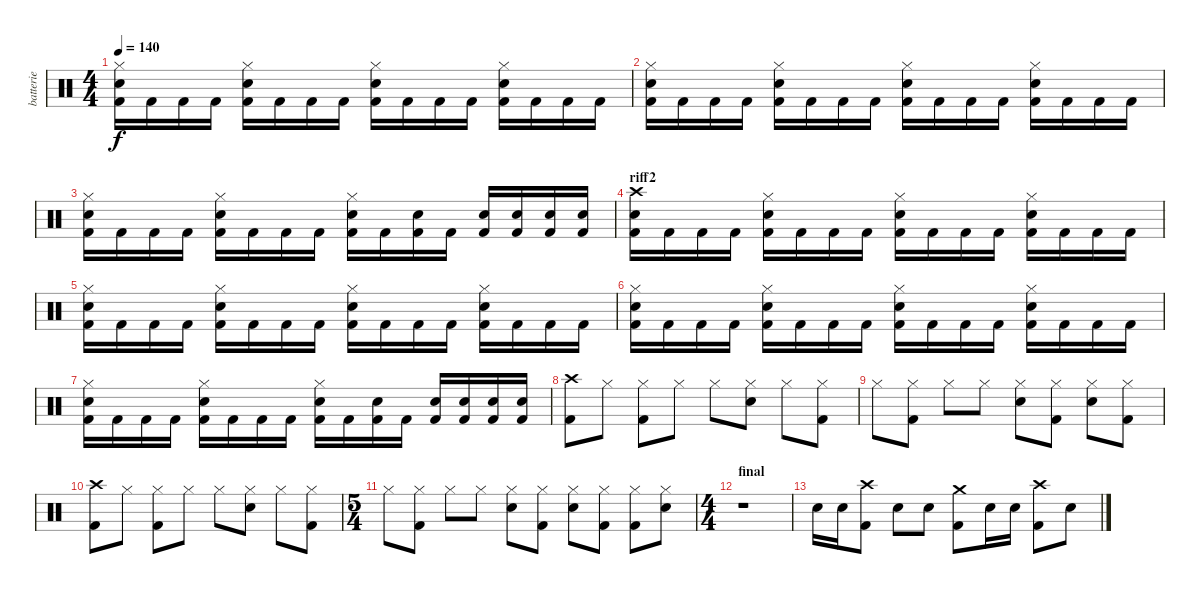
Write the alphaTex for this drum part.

\track ("batterie" "batterie") {instrument percussion}
\staff {score}
\articulation defaults
\ts (4 4)
\tempo 140
\clef neutral
\ks c
("Snare (hit) 2" "Kick (hit) 2" "Hi-Hat (closed)").16{dy f} "Kick (hit) 2".16 "Kick (hit) 2".16 "Kick (hit) 2".16 ("Snare (hit) 2" "Kick (hit) 2" "Hi-Hat (closed)").16 "Kick (hit) 2".16 "Kick (hit) 2".16 "Kick (hit) 2".16 ("Snare (hit) 2" "Kick (hit) 2" "Hi-Hat (closed)").16 "Kick (hit) 2".16 "Kick (hit) 2".16 "Kick (hit) 2".16 ("Snare (hit) 2" "Kick (hit) 2" "Hi-Hat (closed)").16 "Kick (hit) 2".16 "Kick (hit) 2".16 "Kick (hit) 2".16 |
("Snare (hit) 2" "Kick (hit) 2" "Hi-Hat (closed)").16 "Kick (hit) 2".16 "Kick (hit) 2".16 "Kick (hit) 2".16 ("Snare (hit) 2" "Kick (hit) 2" "Hi-Hat (closed)").16 "Kick (hit) 2".16 "Kick (hit) 2".16 "Kick (hit) 2".16 ("Snare (hit) 2" "Kick (hit) 2" "Hi-Hat (closed)").16 "Kick (hit) 2".16 "Kick (hit) 2".16 "Kick (hit) 2".16 ("Snare (hit) 2" "Kick (hit) 2" "Hi-Hat (closed)").16 "Kick (hit) 2".16 "Kick (hit) 2".16 "Kick (hit) 2".16 |
("Snare (hit) 2" "Kick (hit) 2" "Hi-Hat (closed)").16 "Kick (hit) 2".16 "Kick (hit) 2".16 "Kick (hit) 2".16 ("Snare (hit) 2" "Kick (hit) 2" "Hi-Hat (closed)").16 "Kick (hit) 2".16 "Kick (hit) 2".16 "Kick (hit) 2".16 ("Snare (hit) 2" "Kick (hit) 2" "Hi-Hat (closed)").16 "Kick (hit) 2".16 ("Snare (hit) 2" "Kick (hit) 2").16 "Kick (hit) 2".16 ("Snare (hit) 2" "Kick (hit) 2").16 ("Snare (hit) 2" "Kick (hit) 2").16 ("Snare (hit) 2" "Kick (hit) 2").16 ("Snare (hit) 2" "Kick (hit) 2").16 |
\section ("" "riff2")
("Crash high (hit)" "Snare (hit) 2" "Kick (hit) 2").16 "Kick (hit) 2".16 "Kick (hit) 2".16 "Kick (hit) 2".16 ("Snare (hit) 2" "Kick (hit) 2" "Hi-Hat (closed)").16 "Kick (hit) 2".16 "Kick (hit) 2".16 "Kick (hit) 2".16 ("Snare (hit) 2" "Kick (hit) 2" "Hi-Hat (closed)").16 "Kick (hit) 2".16 "Kick (hit) 2".16 "Kick (hit) 2".16 ("Snare (hit) 2" "Kick (hit) 2" "Hi-Hat (closed)").16 "Kick (hit) 2".16 "Kick (hit) 2".16 "Kick (hit) 2".16 |
("Snare (hit) 2" "Kick (hit) 2" "Hi-Hat (closed)").16 "Kick (hit) 2".16 "Kick (hit) 2".16 "Kick (hit) 2".16 ("Snare (hit) 2" "Kick (hit) 2" "Hi-Hat (closed)").16 "Kick (hit) 2".16 "Kick (hit) 2".16 "Kick (hit) 2".16 ("Snare (hit) 2" "Kick (hit) 2" "Hi-Hat (closed)").16 "Kick (hit) 2".16 "Kick (hit) 2".16 "Kick (hit) 2".16 ("Snare (hit) 2" "Kick (hit) 2" "Hi-Hat (closed)").16 "Kick (hit) 2".16 "Kick (hit) 2".16 "Kick (hit) 2".16 |
("Snare (hit) 2" "Kick (hit) 2" "Hi-Hat (closed)").16 "Kick (hit) 2".16 "Kick (hit) 2".16 "Kick (hit) 2".16 ("Snare (hit) 2" "Kick (hit) 2" "Hi-Hat (closed)").16 "Kick (hit) 2".16 "Kick (hit) 2".16 "Kick (hit) 2".16 ("Snare (hit) 2" "Kick (hit) 2" "Hi-Hat (closed)").16 "Kick (hit) 2".16 "Kick (hit) 2".16 "Kick (hit) 2".16 ("Snare (hit) 2" "Kick (hit) 2" "Hi-Hat (closed)").16 "Kick (hit) 2".16 "Kick (hit) 2".16 "Kick (hit) 2".16 |
("Snare (hit) 2" "Kick (hit) 2" "Hi-Hat (closed)").16 "Kick (hit) 2".16 "Kick (hit) 2".16 "Kick (hit) 2".16 ("Snare (hit) 2" "Kick (hit) 2" "Hi-Hat (closed)").16 "Kick (hit) 2".16 "Kick (hit) 2".16 "Kick (hit) 2".16 ("Snare (hit) 2" "Kick (hit) 2" "Hi-Hat (closed)").16 "Kick (hit) 2".16 ("Snare (hit) 2" "Kick (hit) 2").16 "Kick (hit) 2".16 ("Snare (hit) 2" "Kick (hit) 2").16 ("Snare (hit) 2" "Kick (hit) 2").16 ("Snare (hit) 2" "Kick (hit) 2").16 ("Snare (hit) 2" "Kick (hit) 2").16 |
("Crash high (hit)" "Kick (hit) 2").8 "Hi-Hat (closed)".8 ("Kick (hit) 2" "Hi-Hat (closed)").8 "Hi-Hat (closed)".8 "Hi-Hat (closed)".8 ("Snare (hit) 2" "Hi-Hat (closed)").8 "Hi-Hat (closed)".8 ("Kick (hit) 2" "Hi-Hat (closed)").8 |
"Hi-Hat (closed)".8 ("Kick (hit) 2" "Hi-Hat (closed)").8 "Hi-Hat (closed)".8 "Hi-Hat (closed)".8 ("Snare (hit) 2" "Hi-Hat (closed)").8 ("Kick (hit) 2" "Hi-Hat (closed)").8 ("Snare (hit) 2" "Hi-Hat (closed)").8 ("Kick (hit) 2" "Hi-Hat (closed)").8 |
("Crash high (hit)" "Kick (hit) 2").8 "Hi-Hat (closed)".8 ("Kick (hit) 2" "Hi-Hat (closed)").8 "Hi-Hat (closed)".8 "Hi-Hat (closed)".8 ("Snare (hit) 2" "Hi-Hat (closed)").8 "Hi-Hat (closed)".8 ("Kick (hit) 2" "Hi-Hat (closed)").8 |
\ts (5 4)
"Hi-Hat (closed)".8 ("Kick (hit) 2" "Hi-Hat (closed)").8 "Hi-Hat (closed)".8 "Hi-Hat (closed)".8 ("Snare (hit) 2" "Hi-Hat (closed)").8 ("Kick (hit) 2" "Hi-Hat (closed)").8 ("Snare (hit) 2" "Hi-Hat (closed)").8 ("Kick (hit) 2" "Hi-Hat (closed)").8 ("Kick (hit) 2" "Hi-Hat (closed)").8 ("Snare (hit) 2" "Hi-Hat (closed)").8 |
\ts (4 4)
\section ("" "final")
r.1 |
"Snare (hit) 2".16 "Snare (hit) 2".16 ("Crash high (hit)" "Kick (hit) 2").8 "Snare (hit) 2".8 "Snare (hit) 2".8 ("Crash medium (hit)" "Kick (hit) 2").8 "Snare (hit) 2".16 "Snare (hit) 2".16 ("Crash high (hit)" "Kick (hit) 2").8 "Snare (hit) 2".8
